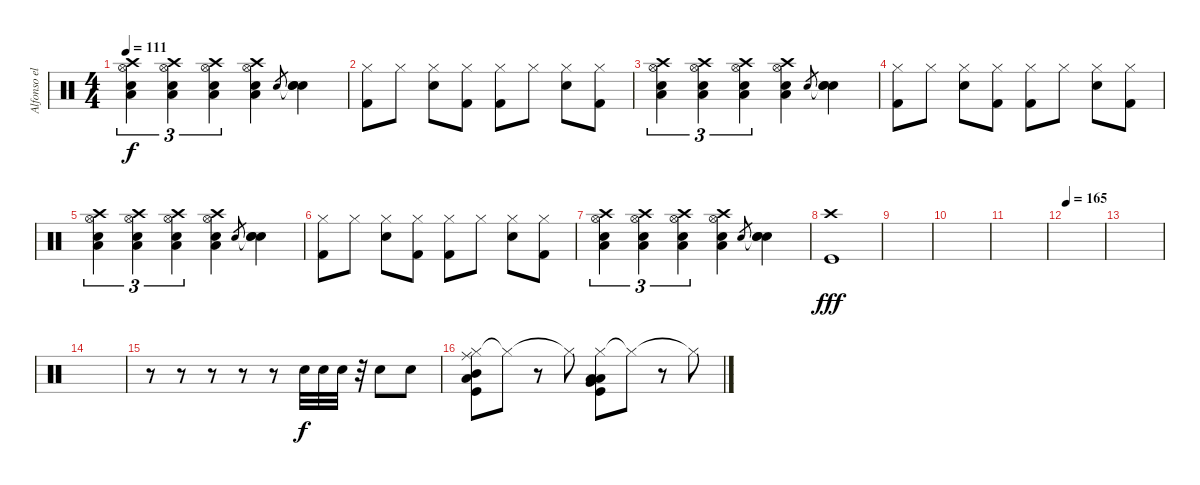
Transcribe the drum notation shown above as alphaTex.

\track ("Alfonso el flaco Andre" "Alfonso el") {instrument percussion}
\staff {score}
\articulation defaults
\ts (4 4)
\tempo 111
\clef neutral
\ks c
("Hi-Hat (open)" "Snare (hit) 2" "Crash high (hit)" "Low Floor Tom (hit)").4{tu (3 2) dy f} ("Hi-Hat (open)" "Snare (hit) 2" "Crash high (hit)" "Low Floor Tom (hit)").4{tu (3 2)} ("Hi-Hat (open)" "Snare (hit) 2" "Crash high (hit)" "Low Floor Tom (hit)").4{tu (3 2)} ("Hi-Hat (open)" "Snare (hit) 2" "Crash high (hit)" "Low Floor Tom (hit)").4 "Snare (hit) 2".8{gr} ("Snare (hit)"{t} "Snare (hit) 2" "Snare (hit) 2").4 |
("Hi-Hat (closed)" "Kick (hit) 2").8 "Hi-Hat (closed)".8 ("Hi-Hat (closed)" "Snare (hit) 2").8 ("Hi-Hat (closed)" "Kick (hit) 2").8 ("Hi-Hat (closed)" "Kick (hit) 2").8 "Hi-Hat (closed)".8 ("Hi-Hat (closed)" "Snare (hit) 2").8 ("Hi-Hat (closed)" "Kick (hit) 2").8 |
("Hi-Hat (open)" "Snare (hit) 2" "Crash high (hit)" "Low Floor Tom (hit)").4{tu (3 2)} ("Hi-Hat (open)" "Snare (hit) 2" "Crash high (hit)" "Low Floor Tom (hit)").4{tu (3 2)} ("Hi-Hat (open)" "Snare (hit) 2" "Crash high (hit)" "Low Floor Tom (hit)").4{tu (3 2)} ("Hi-Hat (open)" "Snare (hit) 2" "Crash high (hit)" "Low Floor Tom (hit)").4 "Snare (hit) 2".8{gr} ("Snare (hit)"{t} "Snare (hit) 2" "Snare (hit) 2").4 |
("Hi-Hat (closed)" "Kick (hit) 2").8 "Hi-Hat (closed)".8 ("Hi-Hat (closed)" "Snare (hit) 2").8 ("Hi-Hat (closed)" "Kick (hit) 2").8 ("Hi-Hat (closed)" "Kick (hit) 2").8 "Hi-Hat (closed)".8 ("Hi-Hat (closed)" "Snare (hit) 2").8 ("Hi-Hat (closed)" "Kick (hit) 2").8 |
("Hi-Hat (open)" "Snare (hit) 2" "Crash high (hit)" "Low Floor Tom (hit)").4{tu (3 2)} ("Hi-Hat (open)" "Snare (hit) 2" "Crash high (hit)" "Low Floor Tom (hit)").4{tu (3 2)} ("Hi-Hat (open)" "Snare (hit) 2" "Crash high (hit)" "Low Floor Tom (hit)").4{tu (3 2)} ("Hi-Hat (open)" "Snare (hit) 2" "Crash high (hit)" "Low Floor Tom (hit)").4 "Snare (hit) 2".8{gr} ("Snare (hit)"{t} "Snare (hit) 2" "Snare (hit) 2").4 |
("Hi-Hat (closed)" "Kick (hit) 2").8 "Hi-Hat (closed)".8 ("Hi-Hat (closed)" "Snare (hit) 2").8 ("Hi-Hat (closed)" "Kick (hit) 2").8 ("Hi-Hat (closed)" "Kick (hit) 2").8 "Hi-Hat (closed)".8 ("Hi-Hat (closed)" "Snare (hit) 2").8 ("Hi-Hat (closed)" "Kick (hit) 2").8 |
("Hi-Hat (open)" "Snare (hit) 2" "Crash high (hit)" "Low Floor Tom (hit)").4{tu (3 2)} ("Hi-Hat (open)" "Snare (hit) 2" "Crash high (hit)" "Low Floor Tom (hit)").4{tu (3 2)} ("Hi-Hat (open)" "Snare (hit) 2" "Crash high (hit)" "Low Floor Tom (hit)").4{tu (3 2)} ("Hi-Hat (open)" "Snare (hit) 2" "Crash high (hit)" "Low Floor Tom (hit)").4 "Snare (hit) 2".8{gr} ("Snare (hit)"{t} "Snare (hit) 2" "Snare (hit) 2").4 |
("Crash high (hit)" "Kick (hit)").1{dy fff} |
|
|
|
\tempo 165
|
|
|
r.8 r.8 r.8 r.8 r.8 "Snare (hit) 2".32{dy f} "Snare (hit) 2".32 "Snare (hit) 2".32 r.32 "Snare (hit) 2".8 "Snare (hit) 2".8 |
("Hi-Hat (closed)" "Ride (middle)" "Low Floor Tom (hit)" "Mid Tom (hit)" "Kick (hit)").8 "Hi-Hat (closed)"{t}.8 r.8 "Hi-Hat (closed)"{t}.8 ("Hi-Hat (closed)" "Low Floor Tom (hit)" "Very Low Tom (hit)" "Low Tom (hit)" "Kick (hit)").8 "Hi-Hat (closed)"{t}.8 r.8 "Hi-Hat (closed)"{t}.8
